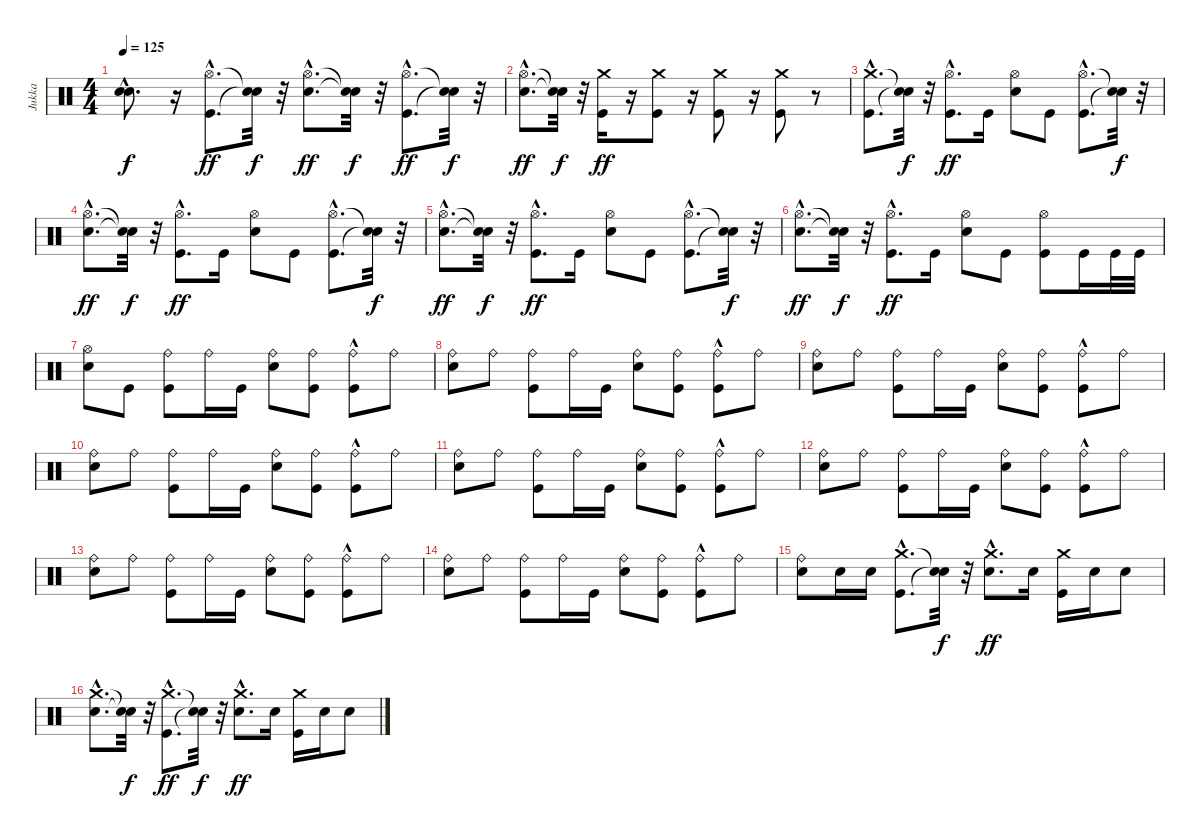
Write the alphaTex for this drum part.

\track ("Jukka" "Jukka") {instrument percussion}
\staff {score}
\articulation defaults
\ts (4 4)
\tempo 125
\clef neutral
\ks c
("Snare (hit)"{hac t} "Snare (hit)"{hac t}).8{d dy f} r.16 ("Kick (hit)"{hac} "Hi-Hat (open)"{hac}).8{d dy ff} ("Snare (hit)"{t} "Snare (hit)"{t}).32{dy f} r.32 ("Electric Snare (hit)"{hac} "Hi-Hat (open)"{hac}).8{d dy ff} ("Snare (hit)"{t} "Snare (hit)"{t}).32{dy f} r.32 ("Kick (hit)"{hac} "Hi-Hat (open)"{hac}).8{d dy ff} ("Snare (hit)"{t} "Snare (hit)"{t}).32{dy f} r.32 |
("Electric Snare (hit)"{hac} "Hi-Hat (open)"{hac}).8{d dy ff} ("Snare (hit)"{t} "Snare (hit)"{t}).32{dy f} r.32 ("Kick (hit)" "Crash medium (hit)").16{dy ff} r.16 ("Kick (hit)" "Crash medium (hit)").8 r.16 ("Kick (hit)" "Crash medium (hit)").8 r.16 ("Kick (hit)" "Crash medium (hit)").8 r.8 |
("Kick (hit)"{hac} "Crash medium (hit)"{hac}).8{d} ("Snare (hit)"{t} "Snare (hit)"{t}).32{dy f} r.32 ("Kick (hit)"{hac} "Hi-Hat (open)"{hac}).8{d dy ff} "Kick (hit)".16 ("Electric Snare (hit)" "Hi-Hat (open)").8 "Kick (hit)".8 ("Kick (hit)"{hac} "Hi-Hat (open)"{hac}).8{d} ("Snare (hit)"{t} "Snare (hit)"{t}).32{dy f} r.32 |
("Electric Snare (hit)"{hac} "Hi-Hat (open)"{hac}).8{d dy ff} ("Snare (hit)"{t} "Snare (hit)"{t}).32{dy f} r.32 ("Kick (hit)"{hac} "Hi-Hat (open)"{hac}).8{d dy ff} "Kick (hit)".16 ("Electric Snare (hit)" "Hi-Hat (open)").8 "Kick (hit)".8 ("Kick (hit)"{hac} "Hi-Hat (open)"{hac}).8{d} ("Snare (hit)"{t} "Snare (hit)"{t}).32{dy f} r.32 |
("Electric Snare (hit)"{hac} "Hi-Hat (open)"{hac}).8{d dy ff} ("Snare (hit)"{t} "Snare (hit)"{t}).32{dy f} r.32 ("Kick (hit)"{hac} "Hi-Hat (open)"{hac}).8{d dy ff} "Kick (hit)".16 ("Electric Snare (hit)" "Hi-Hat (open)").8 "Kick (hit)".8 ("Kick (hit)"{hac} "Hi-Hat (open)"{hac}).8{d} ("Snare (hit)"{t} "Snare (hit)"{t}).32{dy f} r.32 |
("Electric Snare (hit)"{hac} "Hi-Hat (open)"{hac}).8{d dy ff} ("Snare (hit)"{t} "Snare (hit)"{t}).32{dy f} r.32 ("Kick (hit)"{hac} "Hi-Hat (open)"{hac}).8{d dy ff} "Kick (hit)".16 ("Electric Snare (hit)" "Hi-Hat (open)").8 "Kick (hit)".8 ("Kick (hit)" "Hi-Hat (open)").8 "Kick (hit)".16 "Kick (hit)".32 "Kick (hit)".32 |
("Electric Snare (hit)" "Hi-Hat (open)").8 "Kick (hit)".8 ("Kick (hit)" "Ride (bell)").8 "Ride (bell)".16 "Kick (hit)".16 ("Electric Snare (hit)" "Ride (bell)").8 ("Kick (hit)" "Ride (bell)").8 ("Kick (hit)"{hac} "Ride (bell)").8 "Ride (bell)".8 |
("Electric Snare (hit)" "Ride (bell)").8 "Ride (bell)".8 ("Kick (hit)" "Ride (bell)").8 "Ride (bell)".16 "Kick (hit)".16 ("Electric Snare (hit)" "Ride (bell)").8 ("Kick (hit)" "Ride (bell)").8 ("Kick (hit)"{hac} "Ride (bell)").8 "Ride (bell)".8 |
("Electric Snare (hit)" "Ride (bell)").8 "Ride (bell)".8 ("Kick (hit)" "Ride (bell)").8 "Ride (bell)".16 "Kick (hit)".16 ("Electric Snare (hit)" "Ride (bell)").8 ("Kick (hit)" "Ride (bell)").8 ("Kick (hit)"{hac} "Ride (bell)").8 "Ride (bell)".8 |
("Electric Snare (hit)" "Ride (bell)").8 "Ride (bell)".8 ("Kick (hit)" "Ride (bell)").8 "Ride (bell)".16 "Kick (hit)".16 ("Electric Snare (hit)" "Ride (bell)").8 ("Kick (hit)" "Ride (bell)").8 ("Kick (hit)"{hac} "Ride (bell)").8 "Ride (bell)".8 |
("Electric Snare (hit)" "Ride (bell)").8 "Ride (bell)".8 ("Kick (hit)" "Ride (bell)").8 "Ride (bell)".16 "Kick (hit)".16 ("Electric Snare (hit)" "Ride (bell)").8 ("Kick (hit)" "Ride (bell)").8 ("Kick (hit)"{hac} "Ride (bell)").8 "Ride (bell)".8 |
("Electric Snare (hit)" "Ride (bell)").8 "Ride (bell)".8 ("Kick (hit)" "Ride (bell)").8 "Ride (bell)".16 "Kick (hit)".16 ("Electric Snare (hit)" "Ride (bell)").8 ("Kick (hit)" "Ride (bell)").8 ("Kick (hit)"{hac} "Ride (bell)").8 "Ride (bell)".8 |
("Electric Snare (hit)" "Ride (bell)").8 "Ride (bell)".8 ("Kick (hit)" "Ride (bell)").8 "Ride (bell)".16 "Kick (hit)".16 ("Electric Snare (hit)" "Ride (bell)").8 ("Kick (hit)" "Ride (bell)").8 ("Kick (hit)"{hac} "Ride (bell)").8 "Ride (bell)".8 |
("Electric Snare (hit)" "Ride (bell)").8 "Ride (bell)".8 ("Kick (hit)" "Ride (bell)").8 "Ride (bell)".16 "Kick (hit)".16 ("Electric Snare (hit)" "Ride (bell)").8 ("Kick (hit)" "Ride (bell)").8 ("Kick (hit)"{hac} "Ride (bell)").8 "Ride (bell)".8 |
("Electric Snare (hit)" "Ride (bell)").8 "Electric Snare (hit)".16 "Electric Snare (hit)".16 ("Kick (hit)"{hac} "Crash medium (hit)"{hac}).8{d} ("Snare (hit)"{t} "Snare (hit)"{t}).32{dy f} r.32 ("Electric Snare (hit)"{hac} "Crash medium (hit)"{hac}).8{d dy ff} "Electric Snare (hit)".16 ("Kick (hit)" "Crash medium (hit)").16 "Electric Snare (hit)".16 "Electric Snare (hit)".8 |
("Electric Snare (hit)"{hac} "Crash medium (hit)"{hac}).8{d} ("Snare (hit)"{t} "Snare (hit)"{t}).32{dy f} r.32 ("Kick (hit)"{hac} "Crash medium (hit)"{hac}).8{d dy ff} ("Snare (hit)"{t} "Snare (hit)"{t}).32{dy f} r.32 ("Electric Snare (hit)"{hac} "Crash medium (hit)"{hac}).8{d dy ff} "Electric Snare (hit)".16 ("Kick (hit)" "Crash medium (hit)").16 "Electric Snare (hit)".16 "Electric Snare (hit)".8
